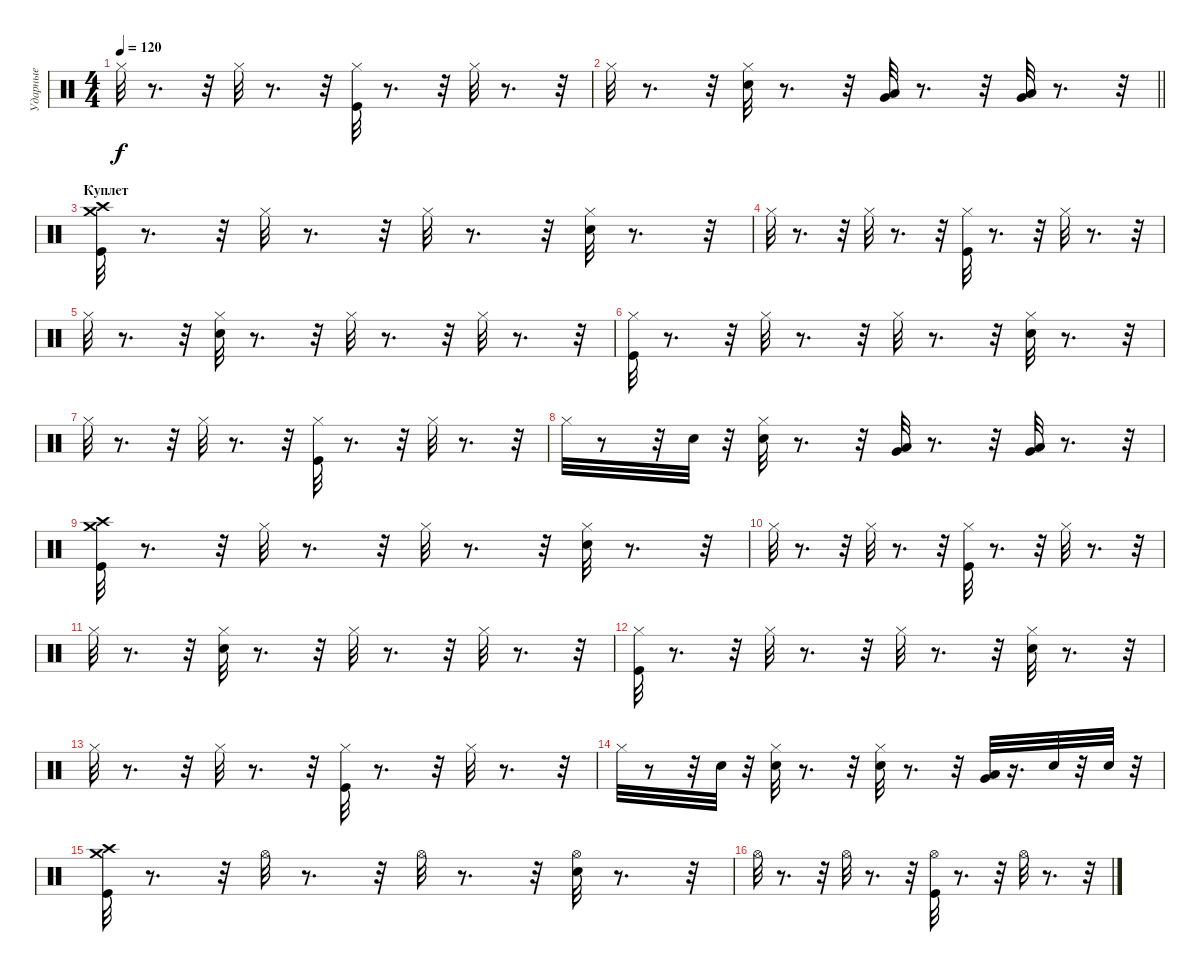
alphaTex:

\track ("Ударные" "Ударные") {instrument percussion}
\staff {score}
\articulation defaults
\ts (4 4)
\tempo 120
\clef neutral
\ks c "Hi-Hat (closed)".32{dy f}
r.8{d} r.32 "Hi-Hat (closed)".32 r.8{d} r.32 ("Hi-Hat (closed)" "Kick (hit)").32 r.8{d} r.32 "Hi-Hat (closed)".32 r.8{d} r.32 |
\barLineRight lightlight "Hi-Hat (closed)".32
r.8{d} r.32 ("Hi-Hat (closed)" "Snare (hit) 2").32 r.8{d} r.32 ("Low Tom (hit)" "Very Low Tom (hit)").32 r.8{d} r.32 ("Very Low Tom (hit)" "Low Floor Tom (hit)").32 r.8{d} r.32 |
\section ("" "Куплет ")
("Kick (hit)" "Crash medium (hit)" "Crash high (hit)").32 r.8{d} r.32 "Hi-Hat (closed)".32 r.8{d} r.32 "Hi-Hat (closed)".32 r.8{d} r.32 ("Hi-Hat (closed)" "Snare (hit) 2").32 r.8{d} r.32 |
"Hi-Hat (closed)".32 r.8{d} r.32 "Hi-Hat (closed)".32 r.8{d} r.32 ("Kick (hit)" "Hi-Hat (closed)").32 r.8{d} r.32 "Hi-Hat (closed)".32 r.8{d} r.32 |
"Hi-Hat (closed)".32 r.8{d} r.32 ("Snare (hit) 2" "Hi-Hat (closed)").32 r.8{d} r.32 "Hi-Hat (closed)".32 r.8{d} r.32 "Hi-Hat (closed)".32 r.8{d} r.32 |
("Kick (hit)" "Hi-Hat (closed)").32 r.8{d} r.32 "Hi-Hat (closed)".32 r.8{d} r.32 "Hi-Hat (closed)".32 r.8{d} r.32 ("Snare (hit) 2" "Hi-Hat (closed)").32 r.8{d} r.32 |
"Hi-Hat (closed)".32 r.8{d} r.32 "Hi-Hat (closed)".32 r.8{d} r.32 ("Kick (hit)" "Hi-Hat (closed)").32 r.8{d} r.32 "Hi-Hat (closed)".32 r.8{d} r.32 |
"Hi-Hat (closed)".32 r.8 r.32 "Snare (hit) 2".32 r.32 ("Snare (hit) 2" "Hi-Hat (closed)").32 r.8{d} r.32 ("Very Low Tom (hit)" "Low Tom (hit)").32 r.8{d} r.32 ("Very Low Tom (hit)" "Low Floor Tom (hit)").32 r.8{d} r.32 |
("Crash high (hit)" "Crash medium (hit)" "Kick (hit)").32 r.8{d} r.32 "Hi-Hat (closed)".32 r.8{d} r.32 "Hi-Hat (closed)".32 r.8{d} r.32 ("Snare (hit) 2" "Hi-Hat (closed)").32 r.8{d} r.32 |
"Hi-Hat (closed)".32 r.8{d} r.32 "Hi-Hat (closed)".32 r.8{d} r.32 ("Hi-Hat (closed)" "Kick (hit)").32 r.8{d} r.32 "Hi-Hat (closed)".32 r.8{d} r.32 |
"Hi-Hat (closed)".32 r.8{d} r.32 ("Snare (hit) 2" "Hi-Hat (closed)").32 r.8{d} r.32 "Hi-Hat (closed)".32 r.8{d} r.32 "Hi-Hat (closed)".32 r.8{d} r.32 |
("Kick (hit)" "Hi-Hat (closed)").32 r.8{d} r.32 "Hi-Hat (closed)".32 r.8{d} r.32 "Hi-Hat (closed)".32 r.8{d} r.32 ("Snare (hit) 2" "Hi-Hat (closed)").32 r.8{d} r.32 |
"Hi-Hat (closed)".32 r.8{d} r.32 "Hi-Hat (closed)".32 r.8{d} r.32 ("Hi-Hat (closed)" "Kick (hit)").32 r.8{d} r.32 "Hi-Hat (closed)".32 r.8{d} r.32 |
"Hi-Hat (closed)".32 r.8 r.32 "Snare (hit) 2".32 r.32 ("Hi-Hat (closed)" "Snare (hit) 2").32 r.8{d} r.32 ("Hi-Hat (closed)" "Snare (hit) 2").32 r.8{d} r.32 ("Low Floor Tom (hit)" "Very Low Tom (hit)").32 r.16{d} "Snare (hit) 2".32 r.32 "Snare (hit) 2".32 r.32 |
("Crash high (hit)" "Crash medium (hit)" "Kick (hit)").32 r.8{d} r.32 "Hi-Hat (open)".32 r.8{d} r.32 "Hi-Hat (open)".32 r.8{d} r.32 ("Snare (hit) 2" "Hi-Hat (open)").32 r.8{d} r.32 |
"Hi-Hat (open)".32 r.8{d} r.32 "Hi-Hat (open)".32 r.8{d} r.32 ("Hi-Hat (open)" "Kick (hit)").32 r.8{d} r.32 "Hi-Hat (open)".32 r.8{d} r.32
